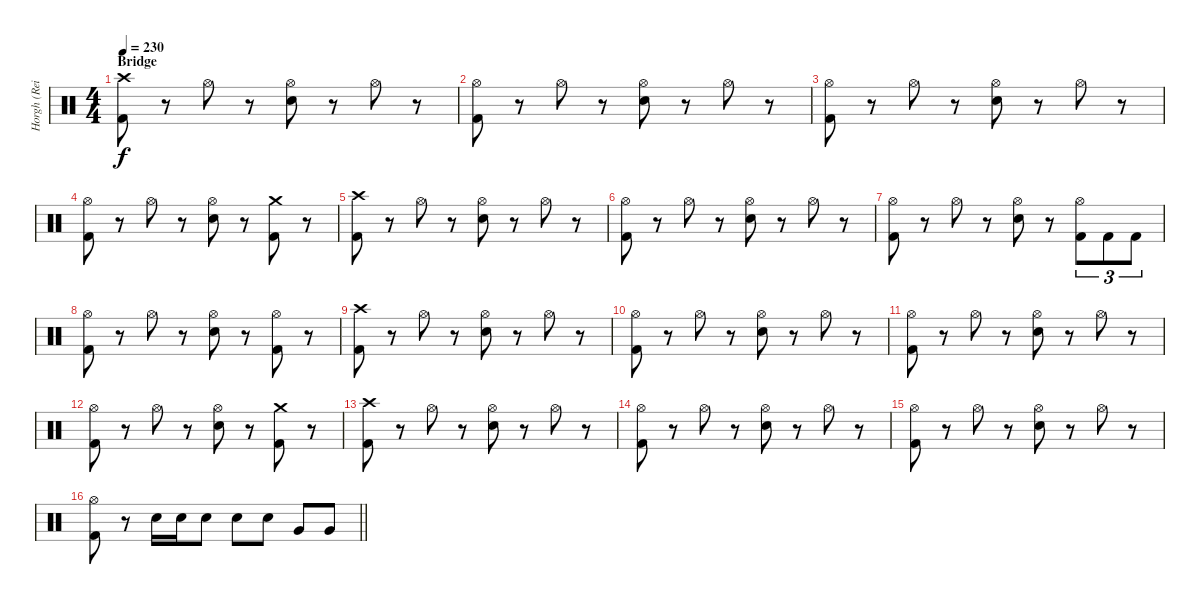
\track ("Horgh (Reidar Horghagen)" "Horgh (Rei") {instrument percussion}
\staff {score}
\articulation defaults
\ts (4 4)
\section ("" "Bridge")
\tempo 230
\clef neutral
\ks c
("Crash high (hit)" "Kick (hit) 2").8{dy f} r.8 "Hi-Hat (open)".8 r.8 ("Hi-Hat (open)" "Snare (hit) 2").8 r.8 "Hi-Hat (open)".8 r.8 |
("Hi-Hat (open)" "Kick (hit) 2").8 r.8 "Hi-Hat (open)".8 r.8 ("Hi-Hat (open)" "Snare (hit) 2").8 r.8 "Hi-Hat (open)".8 r.8 |
("Hi-Hat (open)" "Kick (hit) 2").8 r.8 "Hi-Hat (open)".8 r.8 ("Hi-Hat (open)" "Snare (hit) 2").8 r.8 "Hi-Hat (open)".8 r.8 |
("Hi-Hat (open)" "Kick (hit) 2").8 r.8 "Hi-Hat (open)".8 r.8 ("Hi-Hat (open)" "Snare (hit) 2").8 r.8 ("Crash medium (hit)" "Kick (hit) 2").8 r.8 |
("Crash high (hit)" "Kick (hit) 2").8 r.8 "Hi-Hat (open)".8 r.8 ("Hi-Hat (open)" "Snare (hit) 2").8 r.8 "Hi-Hat (open)".8 r.8 |
("Hi-Hat (open)" "Kick (hit) 2").8 r.8 "Hi-Hat (open)".8 r.8 ("Hi-Hat (open)" "Snare (hit) 2").8 r.8 "Hi-Hat (open)".8 r.8 |
("Hi-Hat (open)" "Kick (hit) 2").8 r.8 "Hi-Hat (open)".8 r.8 ("Hi-Hat (open)" "Snare (hit) 2").8 r.8 ("Hi-Hat (open)" "Kick (hit) 2").8{tu (3 2)} "Kick (hit) 2".8{tu (3 2)} "Kick (hit) 2".8{tu (3 2)} |
("Hi-Hat (open)" "Kick (hit) 2").8 r.8 "Hi-Hat (open)".8 r.8 ("Hi-Hat (open)" "Snare (hit) 2").8 r.8 ("Hi-Hat (open)" "Kick (hit) 2").8 r.8 |
("Crash high (hit)" "Kick (hit) 2").8 r.8 "Hi-Hat (open)".8 r.8 ("Hi-Hat (open)" "Snare (hit) 2").8 r.8 "Hi-Hat (open)".8 r.8 |
("Hi-Hat (open)" "Kick (hit) 2").8 r.8 "Hi-Hat (open)".8 r.8 ("Hi-Hat (open)" "Snare (hit) 2").8 r.8 "Hi-Hat (open)".8 r.8 |
("Hi-Hat (open)" "Kick (hit) 2").8 r.8 "Hi-Hat (open)".8 r.8 ("Hi-Hat (open)" "Snare (hit) 2").8 r.8 "Hi-Hat (open)".8 r.8 |
("Hi-Hat (open)" "Kick (hit) 2").8 r.8 "Hi-Hat (open)".8 r.8 ("Hi-Hat (open)" "Snare (hit) 2").8 r.8 ("Crash medium (hit)" "Kick (hit) 2").8 r.8 |
("Crash high (hit)" "Kick (hit) 2").8 r.8 "Hi-Hat (open)".8 r.8 ("Hi-Hat (open)" "Snare (hit) 2").8 r.8 "Hi-Hat (open)".8 r.8 |
("Hi-Hat (open)" "Kick (hit) 2").8 r.8 "Hi-Hat (open)".8 r.8 ("Hi-Hat (open)" "Snare (hit) 2").8 r.8 "Hi-Hat (open)".8 r.8 |
("Hi-Hat (open)" "Kick (hit) 2").8 r.8 "Hi-Hat (open)".8 r.8 ("Hi-Hat (open)" "Snare (hit) 2").8 r.8 "Hi-Hat (open)".8 r.8 |
\barLineRight lightlight
("Hi-Hat (open)" "Kick (hit) 2").8 r.8 "Snare (hit) 2".16 "Snare (hit) 2".16 "Snare (hit) 2".8 "Snare (hit) 2".8 "Snare (hit) 2".8 "Very Low Tom (hit)".8 "Very Low Tom (hit)".8
